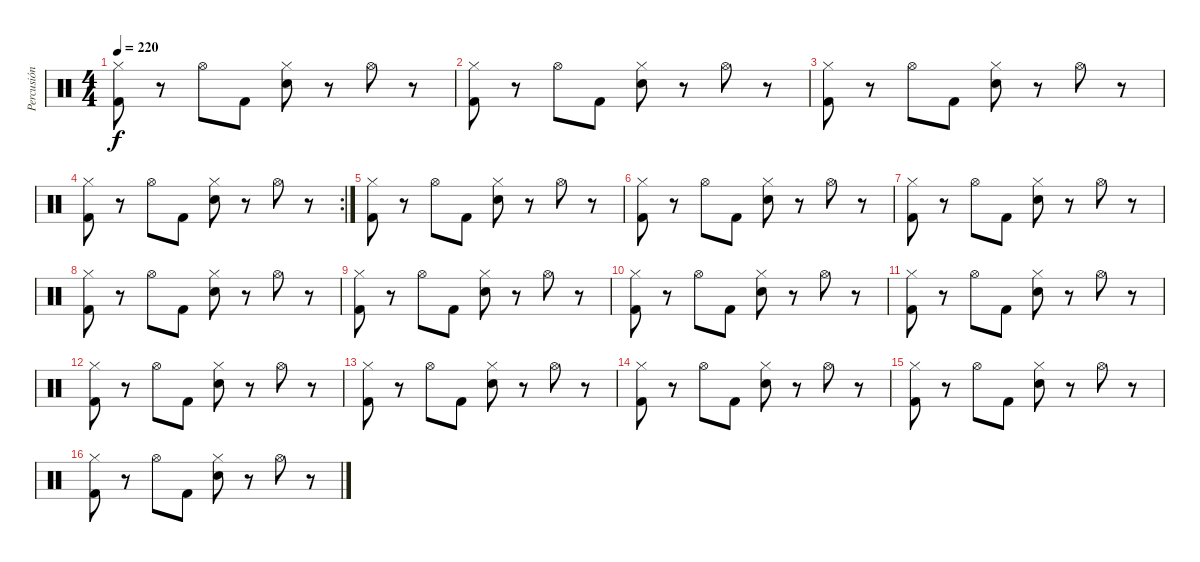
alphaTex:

\track ("Percusión" "Percusión") {instrument percussion}
\staff {score}
\articulation defaults
\ts (4 4)
\tempo 220
\clef neutral
\ks c
("Hi-Hat (closed)" "Kick (hit) 2").8{dy f} r.8 "Hi-Hat (open)".8 "Kick (hit) 2".8 ("Hi-Hat (closed)" "Snare (hit) 2").8 r.8 "Hi-Hat (open)".8 r.8 |
("Hi-Hat (closed)" "Kick (hit) 2").8 r.8 "Hi-Hat (open)".8 "Kick (hit) 2".8 ("Hi-Hat (closed)" "Snare (hit) 2").8 r.8 "Hi-Hat (open)".8 r.8 |
("Hi-Hat (closed)" "Kick (hit) 2").8 r.8 "Hi-Hat (open)".8 "Kick (hit) 2".8 ("Hi-Hat (closed)" "Snare (hit) 2").8 r.8 "Hi-Hat (open)".8 r.8 |
\rc 2
("Hi-Hat (closed)" "Kick (hit) 2").8 r.8 "Hi-Hat (open)".8 "Kick (hit) 2".8 ("Hi-Hat (closed)" "Snare (hit) 2").8 r.8 "Hi-Hat (open)".8 r.8 |
("Hi-Hat (closed)" "Kick (hit) 2").8 r.8 "Hi-Hat (open)".8 "Kick (hit) 2".8 ("Hi-Hat (closed)" "Snare (hit) 2").8 r.8 "Hi-Hat (open)".8 r.8 |
("Hi-Hat (closed)" "Kick (hit) 2").8 r.8 "Hi-Hat (open)".8 "Kick (hit) 2".8 ("Hi-Hat (closed)" "Snare (hit) 2").8 r.8 "Hi-Hat (open)".8 r.8 |
("Hi-Hat (closed)" "Kick (hit) 2").8 r.8 "Hi-Hat (open)".8 "Kick (hit) 2".8 ("Hi-Hat (closed)" "Snare (hit) 2").8 r.8 "Hi-Hat (open)".8 r.8 |
("Hi-Hat (closed)" "Kick (hit) 2").8 r.8 "Hi-Hat (open)".8 "Kick (hit) 2".8 ("Hi-Hat (closed)" "Snare (hit) 2").8 r.8 "Hi-Hat (open)".8 r.8 |
("Hi-Hat (closed)" "Kick (hit) 2").8 r.8 "Hi-Hat (open)".8 "Kick (hit) 2".8 ("Hi-Hat (closed)" "Snare (hit) 2").8 r.8 "Hi-Hat (open)".8 r.8 |
("Hi-Hat (closed)" "Kick (hit) 2").8 r.8 "Hi-Hat (open)".8 "Kick (hit) 2".8 ("Hi-Hat (closed)" "Snare (hit) 2").8 r.8 "Hi-Hat (open)".8 r.8 |
("Hi-Hat (closed)" "Kick (hit) 2").8 r.8 "Hi-Hat (open)".8 "Kick (hit) 2".8 ("Hi-Hat (closed)" "Snare (hit) 2").8 r.8 "Hi-Hat (open)".8 r.8 |
("Hi-Hat (closed)" "Kick (hit) 2").8 r.8 "Hi-Hat (open)".8 "Kick (hit) 2".8 ("Hi-Hat (closed)" "Snare (hit) 2").8 r.8 "Hi-Hat (open)".8 r.8 |
("Hi-Hat (closed)" "Kick (hit) 2").8 r.8 "Hi-Hat (open)".8 "Kick (hit) 2".8 ("Hi-Hat (closed)" "Snare (hit) 2").8 r.8 "Hi-Hat (open)".8 r.8 |
("Hi-Hat (closed)" "Kick (hit) 2").8 r.8 "Hi-Hat (open)".8 "Kick (hit) 2".8 ("Hi-Hat (closed)" "Snare (hit) 2").8 r.8 "Hi-Hat (open)".8 r.8 |
("Hi-Hat (closed)" "Kick (hit) 2").8 r.8 "Hi-Hat (open)".8 "Kick (hit) 2".8 ("Hi-Hat (closed)" "Snare (hit) 2").8 r.8 "Hi-Hat (open)".8 r.8 |
("Hi-Hat (closed)" "Kick (hit) 2").8 r.8 "Hi-Hat (open)".8 "Kick (hit) 2".8 ("Hi-Hat (closed)" "Snare (hit) 2").8 r.8 "Hi-Hat (open)".8 r.8
